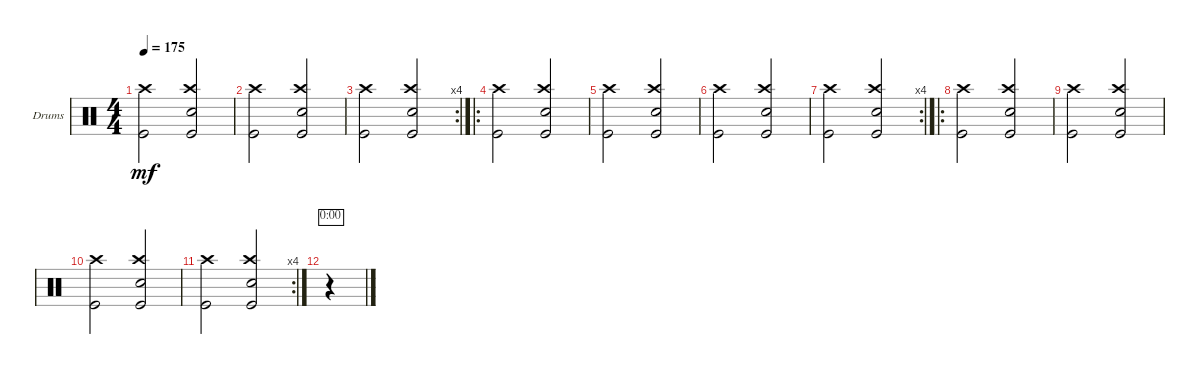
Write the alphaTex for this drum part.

\bracketExtendMode groupsimilarinstruments
\firstSystemTrackNameOrientation horizontal
\otherSystemsTrackNameOrientation horizontal
\track ("Drumkit" "Drums") {instrument percussion}
\staff {score}
\articulation defaults
\ts (4 4)
\tempo 175
\clef neutral
\ks c
("Kick (hit)" "Crash high (hit)").2{dy mf} ("Snare (hit) 2" "Crash high (hit)" "Kick (hit)").2 |
("Kick (hit)" "Crash high (hit)").2 ("Snare (hit) 2" "Crash high (hit)" "Kick (hit)").2 |
\rc 4
("Kick (hit)" "Crash high (hit)").2 ("Snare (hit) 2" "Crash high (hit)" "Kick (hit)").2 |
\ro
("Kick (hit)" "Crash high (hit)").2 ("Snare (hit) 2" "Crash high (hit)" "Kick (hit)").2 |
("Kick (hit)" "Crash high (hit)").2 ("Snare (hit) 2" "Crash high (hit)" "Kick (hit)").2 |
("Kick (hit)" "Crash high (hit)").2 ("Snare (hit) 2" "Crash high (hit)" "Kick (hit)").2 |
\rc 4
("Kick (hit)" "Crash high (hit)").2 ("Snare (hit) 2" "Crash high (hit)" "Kick (hit)").2 |
\ro
("Kick (hit)" "Crash high (hit)").2 ("Snare (hit) 2" "Crash high (hit)" "Kick (hit)").2 |
("Kick (hit)" "Crash high (hit)").2 ("Snare (hit) 2" "Crash high (hit)" "Kick (hit)").2 |
("Kick (hit)" "Crash high (hit)").2 ("Snare (hit) 2" "Crash high (hit)" "Kick (hit)").2 |
\rc 4
("Kick (hit)" "Crash high (hit)").2 ("Snare (hit) 2" "Crash high (hit)" "Kick (hit)").2 |
r.4{timer}
